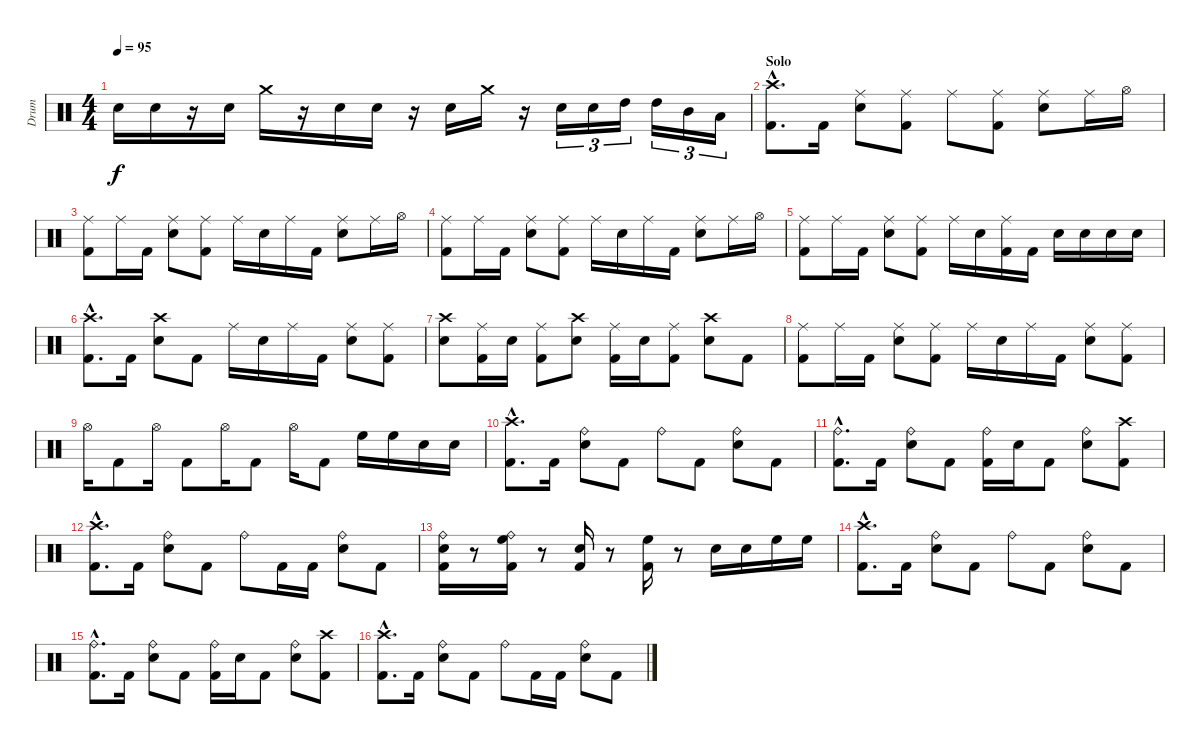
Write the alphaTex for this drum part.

\track ("Drum" "Drum") {instrument percussion}
\staff {score}
\articulation defaults
\ts (4 4)
\tempo 95
\clef neutral
\ks c "Electric Snare (hit)".16{dy f} "Electric Snare (hit)".16
r.16 "Electric Snare (hit)".16 "Crash medium (hit)".16 r.16 "Electric Snare (hit)".16 "Electric Snare (hit)".16 r.16 "Electric Snare (hit)".16 "Crash medium (hit)".16 r.16 "Electric Snare (hit)".16{tu (3 2)} "Electric Snare (hit)".16{tu (3 2)} "High Tom (hit)".16{tu (3 2)} "High Tom (hit)".16{tu (3 2)} "Mid Tom (hit)".16{tu (3 2)} "Low Tom (hit)".16{tu (3 2)} |
\section ("" "Solo")
("Crash high (hit)"{hac} "Kick (hit) 2"{hac}).8{d} "Kick (hit) 2".16 ("Ride (middle)" "Electric Snare (hit)").8 ("Ride (middle)" "Kick (hit) 2").8 "Ride (middle)".8 ("Ride (middle)" "Kick (hit) 2").8 ("Ride (middle)" "Electric Snare (hit)").8 "Ride (middle)".16 "Hi-Hat (open)".16 |
("Ride (middle)" "Kick (hit) 2").8 "Ride (middle)".16 "Kick (hit) 2".16 ("Ride (middle)" "Electric Snare (hit)").8 ("Ride (middle)" "Kick (hit) 2").8 "Ride (middle)".16 "Electric Snare (hit)".16 "Ride (middle)".16 "Kick (hit) 2".16 ("Ride (middle)" "Electric Snare (hit)").8 "Ride (middle)".16 "Hi-Hat (open)".16 |
("Ride (middle)" "Kick (hit) 2").8 "Ride (middle)".16 "Kick (hit) 2".16 ("Ride (middle)" "Electric Snare (hit)").8 ("Ride (middle)" "Kick (hit) 2").8 "Ride (middle)".16 "Electric Snare (hit)".16 "Ride (middle)".16 "Kick (hit) 2".16 ("Ride (middle)" "Electric Snare (hit)").8 "Ride (middle)".16 "Hi-Hat (open)".16 |
("Ride (middle)" "Kick (hit) 2").8 "Ride (middle)".16 "Kick (hit) 2".16 ("Ride (middle)" "Electric Snare (hit)").8 ("Ride (middle)" "Kick (hit) 2").8 "Ride (middle)".16 "Electric Snare (hit)".16 ("Ride (middle)" "Kick (hit) 2").16 "Kick (hit) 2".16 "Electric Snare (hit)".16 "Electric Snare (hit)".16 "Electric Snare (hit)".16 "Electric Snare (hit)".16 |
("Crash high (hit)"{hac} "Kick (hit) 2"{hac}).8{d} "Kick (hit) 2".16 ("Crash high (hit)" "Electric Snare (hit)").8 "Kick (hit) 2".8 "Ride (middle)".16 "Electric Snare (hit)".16 "Ride (middle)".16 "Kick (hit) 2".16 ("Ride (middle)" "Electric Snare (hit)").8 ("Ride (middle)" "Kick (hit) 2").8 |
("Crash high (hit)" "Electric Snare (hit)").8 ("Ride (middle)" "Kick (hit) 2").16 "Electric Snare (hit)".16 ("Ride (middle)" "Kick (hit) 2").8 ("Crash high (hit)" "Electric Snare (hit)").8 ("Ride (middle)" "Kick (hit) 2").16 "Electric Snare (hit)".16 ("Ride (middle)" "Kick (hit) 2").8 ("Crash high (hit)" "Electric Snare (hit)").8 "Kick (hit) 2".8 |
("Ride (middle)" "Kick (hit) 2").8 "Ride (middle)".16 "Kick (hit) 2".16 ("Ride (middle)" "Electric Snare (hit)").8 ("Ride (middle)" "Kick (hit) 2").8 "Ride (middle)".16 "Electric Snare (hit)".16 "Ride (middle)".16 "Kick (hit) 2".16 ("Ride (middle)" "Electric Snare (hit)").8 ("Ride (middle)" "Kick (hit) 2").8 |
"Hi-Hat (open)".16 "Kick (hit) 2".8 "Hi-Hat (open)".16 "Kick (hit) 2".8 "Hi-Hat (open)".16 "Kick (hit) 2".8 "Hi-Hat (open)".16 "Kick (hit) 2".8 "High Floor Tom (hit)".16 "High Floor Tom (hit)".16 "Electric Snare (hit)".16 "Electric Snare (hit)".16 |
("Crash high (hit)"{hac} "Kick (hit) 2"{hac}).8{d} "Kick (hit) 2".16 ("Ride (bell)" "Electric Snare (hit)").8 "Kick (hit) 2".8 "Ride (bell)".8 "Kick (hit) 2".8 ("Ride (bell)" "Electric Snare (hit)").8 "Kick (hit) 2".8 |
("Ride (bell)"{hac} "Kick (hit) 2"{hac}).8{d} "Kick (hit) 2".16 ("Ride (bell)" "Electric Snare (hit)").8 "Kick (hit) 2".8 ("Ride (bell)" "Kick (hit) 2").16 "Electric Snare (hit)".16 "Kick (hit) 2".8 ("Ride (bell)" "Electric Snare (hit)").8 ("Crash high (hit)" "Kick (hit) 2").8 |
("Crash high (hit)"{hac} "Kick (hit) 2"{hac}).8{d} "Kick (hit) 2".16 ("Ride (bell)" "Electric Snare (hit)").8 "Kick (hit) 2".8 "Ride (bell)".8 "Kick (hit) 2".16 "Kick (hit) 2".16 ("Ride (bell)" "Electric Snare (hit)").8 "Kick (hit) 2".8 |
("Ride (bell)" "Electric Snare (hit)" "Kick (hit) 2").16 r.8 ("Ride (bell)" "High Floor Tom (hit)" "Kick (hit) 2").16 r.8 ("Electric Snare (hit)" "Kick (hit) 2").16 r.8 ("High Floor Tom (hit)" "Kick (hit) 2").16 r.8 "Electric Snare (hit)".16 "Electric Snare (hit)".16 "High Floor Tom (hit)".16 "High Floor Tom (hit)".16 |
("Crash high (hit)"{hac} "Kick (hit) 2"{hac}).8{d} "Kick (hit) 2".16 ("Ride (bell)" "Electric Snare (hit)").8 "Kick (hit) 2".8 "Ride (bell)".8 "Kick (hit) 2".8 ("Ride (bell)" "Electric Snare (hit)").8 "Kick (hit) 2".8 |
("Ride (bell)"{hac} "Kick (hit) 2"{hac}).8{d} "Kick (hit) 2".16 ("Ride (bell)" "Electric Snare (hit)").8 "Kick (hit) 2".8 ("Ride (bell)" "Kick (hit) 2").16 "Electric Snare (hit)".16 "Kick (hit) 2".8 ("Ride (bell)" "Electric Snare (hit)").8 ("Crash high (hit)" "Kick (hit) 2").8 |
("Crash high (hit)"{hac} "Kick (hit) 2"{hac}).8{d} "Kick (hit) 2".16 ("Ride (bell)" "Electric Snare (hit)").8 "Kick (hit) 2".8 "Ride (bell)".8 "Kick (hit) 2".16 "Kick (hit) 2".16 ("Ride (bell)" "Electric Snare (hit)").8 "Kick (hit) 2".8
